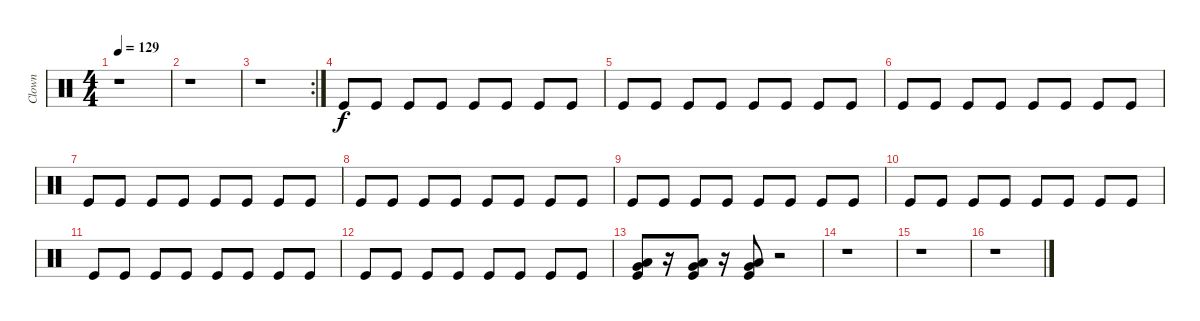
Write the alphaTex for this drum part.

\track ("Clown" "Clown") {instrument percussion}
\staff {score}
\articulation defaults
\ts (4 4)
\tempo 129
\clef neutral
\ks c
r.1{dy f} |
r.1 |
\rc 2
r.1 |
"Kick (hit)".8 "Kick (hit)".8 "Kick (hit)".8 "Kick (hit)".8 "Kick (hit)".8 "Kick (hit)".8 "Kick (hit)".8 "Kick (hit)".8 |
"Kick (hit)".8 "Kick (hit)".8 "Kick (hit)".8 "Kick (hit)".8 "Kick (hit)".8 "Kick (hit)".8 "Kick (hit)".8 "Kick (hit)".8 |
"Kick (hit)".8 "Kick (hit)".8 "Kick (hit)".8 "Kick (hit)".8 "Kick (hit)".8 "Kick (hit)".8 "Kick (hit)".8 "Kick (hit)".8 |
"Kick (hit)".8 "Kick (hit)".8 "Kick (hit)".8 "Kick (hit)".8 "Kick (hit)".8 "Kick (hit)".8 "Kick (hit)".8 "Kick (hit)".8 |
"Kick (hit)".8 "Kick (hit)".8 "Kick (hit)".8 "Kick (hit)".8 "Kick (hit)".8 "Kick (hit)".8 "Kick (hit)".8 "Kick (hit)".8 |
"Kick (hit)".8 "Kick (hit)".8 "Kick (hit)".8 "Kick (hit)".8 "Kick (hit)".8 "Kick (hit)".8 "Kick (hit)".8 "Kick (hit)".8 |
"Kick (hit)".8 "Kick (hit)".8 "Kick (hit)".8 "Kick (hit)".8 "Kick (hit)".8 "Kick (hit)".8 "Kick (hit)".8 "Kick (hit)".8 |
"Kick (hit)".8 "Kick (hit)".8 "Kick (hit)".8 "Kick (hit)".8 "Kick (hit)".8 "Kick (hit)".8 "Kick (hit)".8 "Kick (hit)".8 |
"Kick (hit)".8 "Kick (hit)".8 "Kick (hit)".8 "Kick (hit)".8 "Kick (hit)".8 "Kick (hit)".8 "Kick (hit)".8 "Kick (hit)".8 |
("Kick (hit)" "Low Floor Tom (hit)" "Very Low Tom (hit)").8 r.16 ("Kick (hit)" "Low Floor Tom (hit)" "Very Low Tom (hit)").8 r.16 ("Kick (hit)" "Low Floor Tom (hit)" "Very Low Tom (hit)").8 r.2 |
r.1 |
r.1 |
r.1
